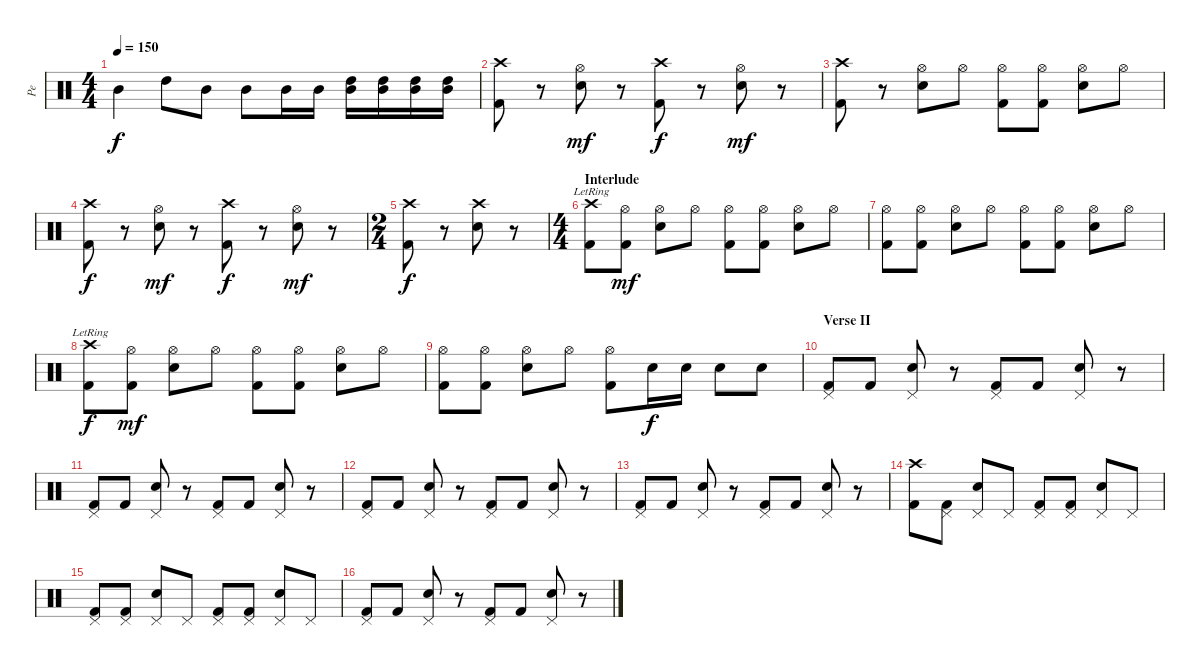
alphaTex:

\track ("Pe" "Pe") {instrument percussion}
\staff {score}
\articulation defaults
\ts (4 4)
\tempo 150
\clef neutral
\ks c "Mid Tom (hit)".4{dy f} "High Tom (hit)".8 "Mid Tom (hit)".8 "Mid Tom (hit)".8 "Mid Tom (hit)".16 "Mid Tom (hit)".16
("Mid Tom (hit)" "High Tom (hit)").16 ("Mid Tom (hit)" "High Tom (hit)").16 ("Mid Tom (hit)" "High Tom (hit)").16 ("Mid Tom (hit)" "High Tom (hit)").16 |
("Crash high (hit)" "Kick (hit) 2").8 r.8 ("Hi-Hat (open)" "Snare (hit) 2").8{dy mf} r.8 ("Crash high (hit)" "Kick (hit) 2").8{dy f} r.8 ("Hi-Hat (open)" "Snare (hit) 2").8{dy mf} r.8 |
("Crash high (hit)" "Kick (hit) 2").8 r.8 ("Hi-Hat (open)" "Snare (hit) 2").8 "Hi-Hat (open)".8 ("Hi-Hat (open)" "Kick (hit) 2").8 ("Hi-Hat (open)" "Kick (hit) 2").8 ("Hi-Hat (open)" "Snare (hit) 2").8 "Hi-Hat (open)".8 |
("Crash high (hit)" "Kick (hit) 2").8{dy f} r.8 ("Hi-Hat (open)" "Snare (hit) 2").8{dy mf} r.8 ("Crash high (hit)" "Kick (hit) 2").8{dy f} r.8 ("Hi-Hat (open)" "Snare (hit) 2").8{dy mf} r.8 |
\ts (2 4)
("Crash high (hit)" "Kick (hit) 2").8{dy f} r.8 ("Crash high (hit)" "Snare (hit) 2").8 r.8 |
\ts (4 4)
\section ("" "Interlude")
("Crash high (hit)"{lr} "Kick (hit) 2").8 ("Hi-Hat (open)" "Kick (hit) 2").8{dy mf} ("Hi-Hat (open)" "Snare (hit) 2").8 "Hi-Hat (open)".8 ("Hi-Hat (open)" "Kick (hit) 2").8 ("Hi-Hat (open)" "Kick (hit) 2").8 ("Hi-Hat (open)" "Snare (hit) 2").8 "Hi-Hat (open)".8 |
("Hi-Hat (open)" "Kick (hit) 2").8 ("Hi-Hat (open)" "Kick (hit) 2").8 ("Hi-Hat (open)" "Snare (hit) 2").8 "Hi-Hat (open)".8 ("Hi-Hat (open)" "Kick (hit) 2").8 ("Hi-Hat (open)" "Kick (hit) 2").8 ("Hi-Hat (open)" "Snare (hit) 2").8 "Hi-Hat (open)".8 |
("Crash high (hit)"{lr} "Kick (hit) 2").8{dy f} ("Hi-Hat (open)" "Kick (hit) 2").8{dy mf} ("Hi-Hat (open)" "Snare (hit) 2").8 "Hi-Hat (open)".8 ("Hi-Hat (open)" "Kick (hit) 2").8 ("Hi-Hat (open)" "Kick (hit) 2").8 ("Hi-Hat (open)" "Snare (hit) 2").8 "Hi-Hat (open)".8 |
("Hi-Hat (open)" "Kick (hit) 2").8 ("Hi-Hat (open)" "Kick (hit) 2").8 ("Hi-Hat (open)" "Snare (hit) 2").8 "Hi-Hat (open)".8 ("Hi-Hat (open)" "Kick (hit) 2").8 "Snare (hit) 2".16{dy f} "Snare (hit) 2".16 "Snare (hit) 2".8 "Snare (hit) 2".8 |
\section ("" "Verse II")
("Pedal Hi-Hat (hit)" "Kick (hit) 2").8 "Kick (hit) 2".8 ("Pedal Hi-Hat (hit)" "Snare (hit) 2").8 r.8 ("Pedal Hi-Hat (hit)" "Kick (hit) 2").8 "Kick (hit) 2".8 ("Pedal Hi-Hat (hit)" "Snare (hit) 2").8 r.8 |
("Pedal Hi-Hat (hit)" "Kick (hit) 2").8 "Kick (hit) 2".8 ("Pedal Hi-Hat (hit)" "Snare (hit) 2").8 r.8 ("Pedal Hi-Hat (hit)" "Kick (hit) 2").8 "Kick (hit) 2".8 ("Pedal Hi-Hat (hit)" "Snare (hit) 2").8 r.8 |
("Pedal Hi-Hat (hit)" "Kick (hit) 2").8 "Kick (hit) 2".8 ("Pedal Hi-Hat (hit)" "Snare (hit) 2").8 r.8 ("Pedal Hi-Hat (hit)" "Kick (hit) 2").8 "Kick (hit) 2".8 ("Pedal Hi-Hat (hit)" "Snare (hit) 2").8 r.8 |
("Pedal Hi-Hat (hit)" "Kick (hit) 2").8 "Kick (hit) 2".8 ("Pedal Hi-Hat (hit)" "Snare (hit) 2").8 r.8 ("Pedal Hi-Hat (hit)" "Kick (hit) 2").8 "Kick (hit) 2".8 ("Pedal Hi-Hat (hit)" "Snare (hit) 2").8 r.8 |
("Crash high (hit)" "Kick (hit) 2").8 ("Pedal Hi-Hat (hit)" "Kick (hit) 2").8 ("Pedal Hi-Hat (hit)" "Snare (hit) 2").8 "Pedal Hi-Hat (hit)".8 ("Pedal Hi-Hat (hit)" "Kick (hit) 2").8 ("Pedal Hi-Hat (hit)" "Kick (hit) 2").8 ("Pedal Hi-Hat (hit)" "Snare (hit) 2").8 "Pedal Hi-Hat (hit)".8 |
("Pedal Hi-Hat (hit)" "Kick (hit) 2").8 ("Pedal Hi-Hat (hit)" "Kick (hit) 2").8 ("Pedal Hi-Hat (hit)" "Snare (hit) 2").8 "Pedal Hi-Hat (hit)".8 ("Pedal Hi-Hat (hit)" "Kick (hit) 2").8 ("Pedal Hi-Hat (hit)" "Kick (hit) 2").8 ("Pedal Hi-Hat (hit)" "Snare (hit) 2").8 "Pedal Hi-Hat (hit)".8 |
("Pedal Hi-Hat (hit)" "Kick (hit) 2").8 "Kick (hit) 2".8 ("Pedal Hi-Hat (hit)" "Snare (hit) 2").8 r.8 ("Pedal Hi-Hat (hit)" "Kick (hit) 2").8 "Kick (hit) 2".8 ("Pedal Hi-Hat (hit)" "Snare (hit) 2").8 r.8
